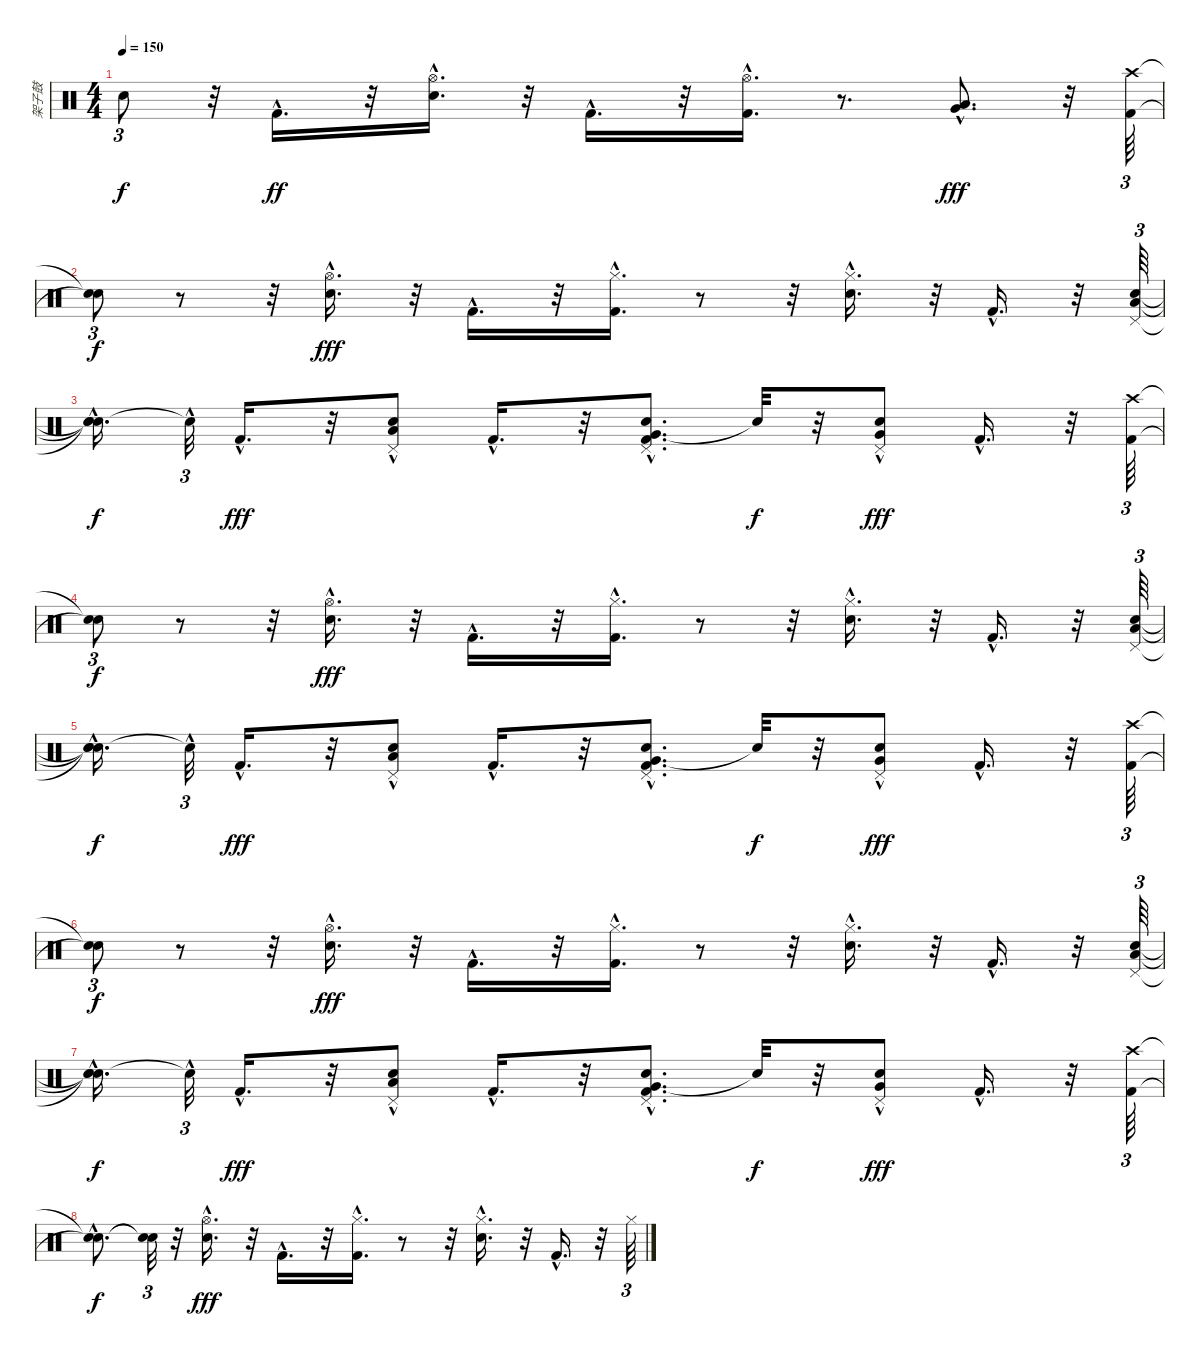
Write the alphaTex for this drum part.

\track ("架子鼓" "架子鼓") {instrument percussion}
\staff {score}
\articulation defaults
\ts (4 4)
\tempo 150
\clef neutral
\ks c "Snare (hit)"{t}.8{tu (3 2) dy f}
r.32 "Kick (hit) 2"{hac}.16{d dy ff} r.32 ("Snare (hit) 2"{hac} "Hi-Hat (open)"{hac}).16{d} r.32 "Kick (hit) 2"{hac}.16{d} r.32 ("Kick (hit) 2"{hac} "Hi-Hat (open)"{hac}).16{d} r.8{d} ("Very Low Tom (hit)"{hac} "Low Floor Tom (hit)"{hac}).8{d dy fff} r.32 ("Kick (hit) 2" "Crash high (hit)").64{tu (3 2)} |
("Snare (hit)"{t} "Snare (hit)"{t}).8{tu (3 2) dy f} r.8 r.32 ("Hi-Hat (open)"{hac} "Snare (hit) 2"{hac}).16{d dy fff} r.32 "Kick (hit) 2"{hac}.16{d} r.32 ("Kick (hit) 2"{hac} "Hi-Hat (closed)"{hac}).16{d} r.8 r.32 ("Hi-Hat (closed)"{hac} "Snare (hit) 2"{hac}).16{d} r.32 "Kick (hit) 2"{hac}.16{d} r.32 ("Low Tom (hit)" "Snare (hit) 2" "Pedal Hi-Hat (hit)").64{tu (3 2)} |
("Snare (hit)"{t} "Snare (hit)"{t} "Snare (hit)"{hac t}).16{d dy f} "Snare (hit)"{hac t}.32{tu (3 2)} "Kick (hit) 2"{hac}.16{d dy fff} r.32 ("Snare (hit) 2"{hac} "Low Tom (hit)"{hac} "Pedal Hi-Hat (hit)"{hac}).8 "Kick (hit) 2"{hac}.16{d} r.32 ("Very Low Tom (hit)"{hac} "Kick (hit) 2"{hac} "Snare (hit) 2"{hac} "Pedal Hi-Hat (hit)"{hac}).8{d} "Snare (hit)"{t}.32{dy f} r.32 ("Very Low Tom (hit)"{hac} "Snare (hit) 2"{hac} "Pedal Hi-Hat (hit)"{hac}).8{dy fff} "Kick (hit) 2"{hac}.16{d} r.32 ("Kick (hit) 2" "Crash high (hit)").64{tu (3 2)} |
("Snare (hit)"{t} "Snare (hit)"{t}).8{tu (3 2) dy f} r.8 r.32 ("Hi-Hat (open)"{hac} "Snare (hit) 2"{hac}).16{d dy fff} r.32 "Kick (hit) 2"{hac}.16{d} r.32 ("Kick (hit) 2"{hac} "Hi-Hat (closed)"{hac}).16{d} r.8 r.32 ("Hi-Hat (closed)"{hac} "Snare (hit) 2"{hac}).16{d} r.32 "Kick (hit) 2"{hac}.16{d} r.32 ("Low Tom (hit)" "Snare (hit) 2" "Pedal Hi-Hat (hit)").64{tu (3 2)} |
("Snare (hit)"{t} "Snare (hit)"{t} "Snare (hit)"{hac t}).16{d dy f} "Snare (hit)"{hac t}.32{tu (3 2)} "Kick (hit) 2"{hac}.16{d dy fff} r.32 ("Snare (hit) 2"{hac} "Low Tom (hit)"{hac} "Pedal Hi-Hat (hit)"{hac}).8 "Kick (hit) 2"{hac}.16{d} r.32 ("Very Low Tom (hit)"{hac} "Kick (hit) 2"{hac} "Snare (hit) 2"{hac} "Pedal Hi-Hat (hit)"{hac}).8{d} "Snare (hit)"{t}.32{dy f} r.32 ("Very Low Tom (hit)"{hac} "Snare (hit) 2"{hac} "Pedal Hi-Hat (hit)"{hac}).8{dy fff} "Kick (hit) 2"{hac}.16{d} r.32 ("Kick (hit) 2" "Crash high (hit)").64{tu (3 2)} |
("Snare (hit)"{t} "Snare (hit)"{t}).8{tu (3 2) dy f} r.8 r.32 ("Hi-Hat (open)"{hac} "Snare (hit) 2"{hac}).16{d dy fff} r.32 "Kick (hit) 2"{hac}.16{d} r.32 ("Kick (hit) 2"{hac} "Hi-Hat (closed)"{hac}).16{d} r.8 r.32 ("Hi-Hat (closed)"{hac} "Snare (hit) 2"{hac}).16{d} r.32 "Kick (hit) 2"{hac}.16{d} r.32 ("Low Tom (hit)" "Snare (hit) 2" "Pedal Hi-Hat (hit)").64{tu (3 2)} |
("Snare (hit)"{t} "Snare (hit)"{t} "Snare (hit)"{hac t}).16{d dy f} "Snare (hit)"{hac t}.32{tu (3 2)} "Kick (hit) 2"{hac}.16{d dy fff} r.32 ("Snare (hit) 2"{hac} "Low Tom (hit)"{hac} "Pedal Hi-Hat (hit)"{hac}).8 "Kick (hit) 2"{hac}.16{d} r.32 ("Very Low Tom (hit)"{hac} "Kick (hit) 2"{hac} "Snare (hit) 2"{hac} "Pedal Hi-Hat (hit)"{hac}).8{d} "Snare (hit)"{t}.32{dy f} r.32 ("Very Low Tom (hit)"{hac} "Snare (hit) 2"{hac} "Pedal Hi-Hat (hit)"{hac}).8{dy fff} "Kick (hit) 2"{hac}.16{d} r.32 ("Kick (hit) 2" "Crash high (hit)").64{tu (3 2)} |
("Snare (hit)"{hac t} "Snare (hit)"{hac t}).8{d dy f} ("Snare (hit)"{t} "Snare (hit)"{t}).32{tu (3 2)} r.32 ("Hi-Hat (open)"{hac} "Snare (hit) 2"{hac}).16{d dy fff} r.32 "Kick (hit) 2"{hac}.16{d} r.32 ("Kick (hit) 2"{hac} "Hi-Hat (closed)"{hac}).16{d} r.8 r.32 ("Hi-Hat (closed)"{hac} "Snare (hit) 2"{hac}).16{d} r.32 "Kick (hit) 2"{hac}.16{d} r.32 "Hi-Hat (closed)".64{tu (3 2)}
